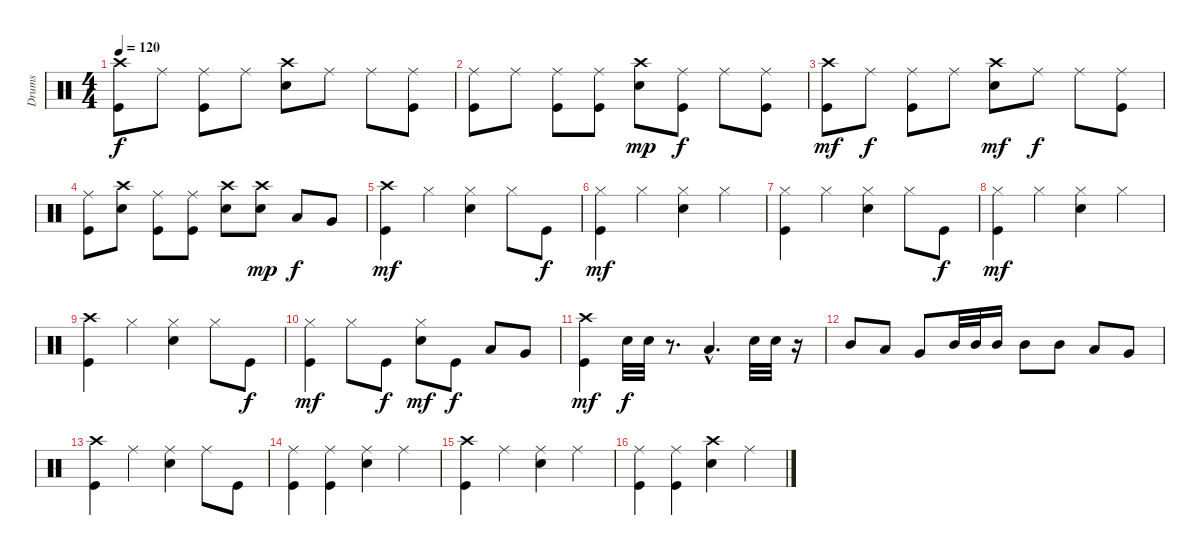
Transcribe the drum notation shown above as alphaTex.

\track ("Drums" "Drums") {instrument percussion}
\staff {score}
\articulation defaults
\ts (4 4)
\tempo 120
\clef neutral
\ks c
("Crash high (hit)" "Kick (hit)").8{dy f} "Ride (middle)".8 ("Ride (middle)" "Kick (hit)").8 "Ride (middle)".8 ("Crash high (hit)" "Snare (hit) 2").8 "Ride (middle)".8 "Ride (middle)".8 ("Ride (middle)" "Kick (hit)").8 |
("Ride (middle)" "Kick (hit)").8 "Ride (middle)".8 ("Ride (middle)" "Kick (hit)").8 ("Ride (middle)" "Kick (hit)").8 ("Crash high (hit)" "Snare (hit) 2").8{dy mp} ("Ride (middle)" "Kick (hit)").8{dy f} "Ride (middle)".8 ("Ride (middle)" "Kick (hit)").8 |
("Crash high (hit)" "Kick (hit)").8{dy mf} "Ride (middle)".8{dy f} ("Ride (middle)" "Kick (hit)").8 "Ride (middle)".8 ("Crash high (hit)" "Snare (hit) 2").8{dy mf} "Ride (middle)".8{dy f} "Ride (middle)".8 ("Ride (middle)" "Kick (hit)").8 |
("Ride (middle)" "Kick (hit)").8 ("Crash high (hit)" "Snare (hit) 2").8 ("Ride (middle)" "Kick (hit)").8 ("Ride (middle)" "Kick (hit)").8 ("Crash high (hit)" "Snare (hit) 2").8 ("Crash high (hit)" "Snare (hit) 2").8{dy mp} "Low Tom (hit)".8{dy f} "Very Low Tom (hit)".8 |
("Crash high (hit)" "Kick (hit)").4{dy mf} "Hi-Hat (closed)".4 ("Hi-Hat (closed)" "Snare (hit) 2").4 "Hi-Hat (closed)".8 "Kick (hit)".8{dy f} |
("Hi-Hat (closed)" "Kick (hit)").4{dy mf} "Hi-Hat (closed)".4 ("Hi-Hat (closed)" "Snare (hit) 2").4 "Hi-Hat (closed)".4 |
("Hi-Hat (closed)" "Kick (hit)").4 "Hi-Hat (closed)".4 ("Hi-Hat (closed)" "Snare (hit) 2").4 "Hi-Hat (closed)".8 "Kick (hit)".8{dy f} |
("Hi-Hat (closed)" "Kick (hit)").4{dy mf} "Hi-Hat (closed)".4 ("Hi-Hat (closed)" "Snare (hit) 2").4 "Hi-Hat (closed)".4 |
("Crash high (hit)" "Kick (hit)").4 "Hi-Hat (closed)".4 ("Hi-Hat (closed)" "Snare (hit) 2").4 "Hi-Hat (closed)".8 "Kick (hit)".8{dy f} |
("Hi-Hat (closed)" "Kick (hit)").4{dy mf} "Hi-Hat (closed)".8 "Kick (hit)".8{dy f} ("Hi-Hat (closed)" "Snare (hit) 2").8{dy mf} "Kick (hit)".8{dy f} "Low Tom (hit)".8 "Very Low Tom (hit)".8 |
("Crash high (hit)" "Kick (hit)").4{dy mf} "Snare (hit) 2".32{dy f} "Snare (hit) 2".32 r.8{d} "Low Tom (hit)"{hac}.4{d} "Snare (hit) 2".32 "Snare (hit) 2".32 r.16 |
"Mid Tom (hit)".8 "Low Tom (hit)".8 "Very Low Tom (hit)".8 "Mid Tom (hit)".32 "Mid Tom (hit)".32 "Mid Tom (hit)".16 "Mid Tom (hit)".8 "Mid Tom (hit)".8 "Low Tom (hit)".8 "Very Low Tom (hit)".8 |
("Crash high (hit)" "Kick (hit)").4 "Ride (middle)".4 ("Ride (middle)" "Snare (hit) 2").4 "Ride (middle)".8 "Kick (hit)".8 |
("Ride (middle)" "Kick (hit)").4 ("Ride (middle)" "Kick (hit)").4 ("Ride (middle)" "Snare (hit) 2").4 "Ride (middle)".4 |
("Crash high (hit)" "Kick (hit)").4 "Ride (middle)".4 ("Ride (middle)" "Snare (hit) 2").4 "Ride (middle)".4 |
("Ride (middle)" "Kick (hit)").4 ("Ride (middle)" "Kick (hit)").4 ("Crash high (hit)" "Snare (hit) 2").4 "Ride (middle)".4
